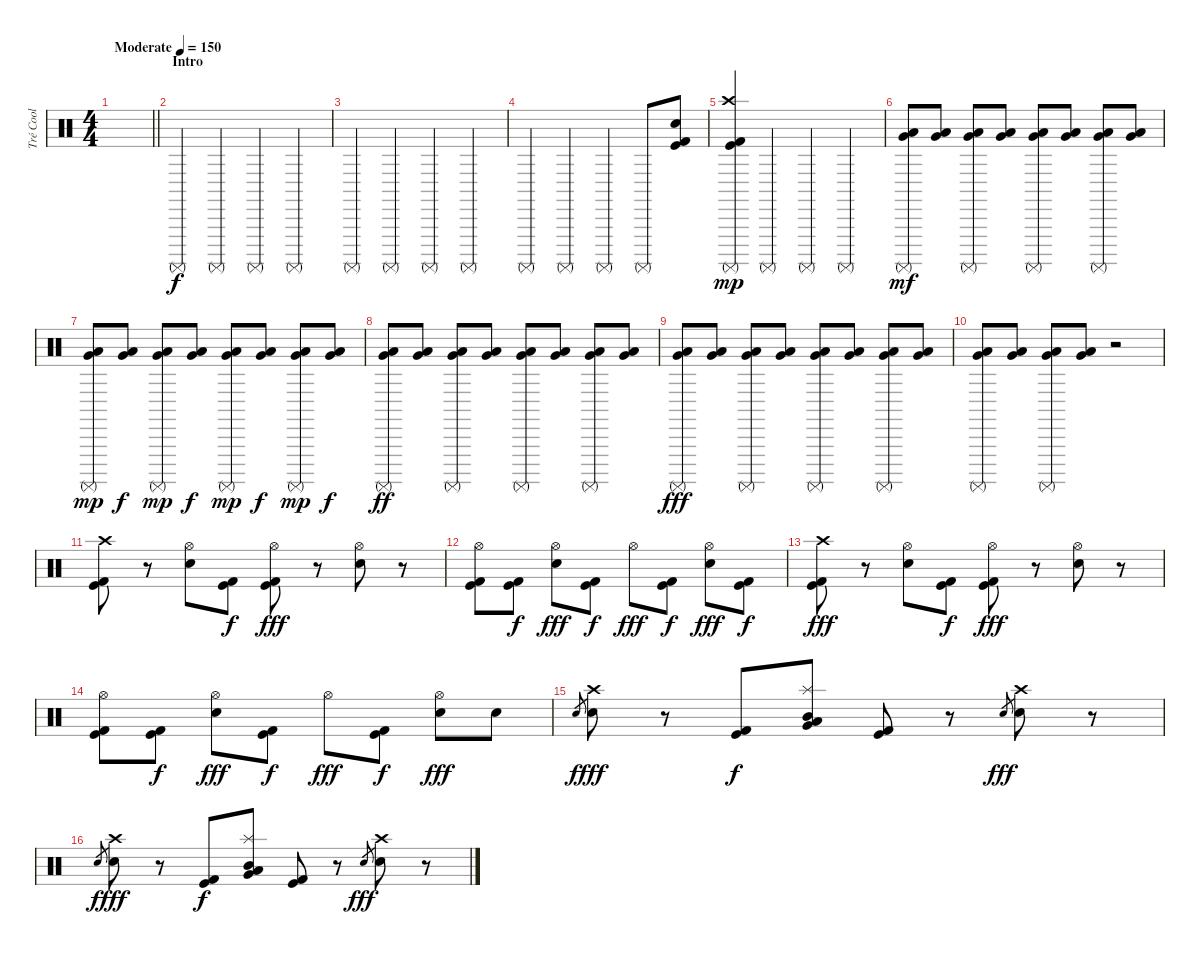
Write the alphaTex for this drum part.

\track ("Tré Cool" "Tré Cool") {instrument percussion}
\staff {score}
\articulation defaults
\ts (4 4)
\tempo (150 "Moderate")
\clef neutral
\barLineRight lightlight
\ks c
|
\section ("" "Intro")
"Surdo (mute)".4 "Surdo (mute)".4 "Surdo (mute)".4 "Surdo (mute)".4 |
"Surdo (mute)".4 "Surdo (mute)".4 "Surdo (mute)".4 "Surdo (mute)".4 |
"Surdo (mute)".4 "Surdo (mute)".4 "Surdo (mute)".4 "Surdo (mute)".8 ("Snare (hit) 2" "Kick (hit)" "Kick (hit) 2").8 |
("Crash high (hit)" "Surdo (mute)" "Kick (hit)" "Kick (hit) 2").4{dy mp} "Surdo (mute)".4 "Surdo (mute)".4 "Surdo (mute)".4 |
("Surdo (mute)" "Low Tom (hit)" "Very Low Tom (hit)").8{dy mf} ("Low Tom (hit)" "Very Low Tom (hit)").8 ("Surdo (mute)" "Low Tom (hit)" "Very Low Tom (hit)").8 ("Low Tom (hit)" "Very Low Tom (hit)").8 ("Surdo (mute)" "Low Tom (hit)" "Very Low Tom (hit)").8 ("Low Tom (hit)" "Very Low Tom (hit)").8 ("Surdo (mute)" "Low Tom (hit)" "Very Low Tom (hit)").8 ("Low Tom (hit)" "Very Low Tom (hit)").8 |
("Surdo (mute)" "Low Tom (hit)" "Very Low Tom (hit)").8{dy mp} ("Low Tom (hit)" "Very Low Tom (hit)").8{dy f} ("Surdo (mute)" "Low Tom (hit)" "Very Low Tom (hit)").8{dy mp} ("Low Tom (hit)" "Very Low Tom (hit)").8{dy f} ("Surdo (mute)" "Low Tom (hit)" "Very Low Tom (hit)").8{dy mp} ("Low Tom (hit)" "Very Low Tom (hit)").8{dy f} ("Surdo (mute)" "Low Tom (hit)" "Very Low Tom (hit)").8{dy mp} ("Low Tom (hit)" "Very Low Tom (hit)").8{dy f} |
("Surdo (mute)" "Low Tom (hit)" "Very Low Tom (hit)").8{dy ff} ("Low Tom (hit)" "Very Low Tom (hit)").8 ("Surdo (mute)" "Low Tom (hit)" "Very Low Tom (hit)").8 ("Low Tom (hit)" "Very Low Tom (hit)").8 ("Surdo (mute)" "Low Tom (hit)" "Very Low Tom (hit)").8 ("Low Tom (hit)" "Very Low Tom (hit)").8 ("Surdo (mute)" "Low Tom (hit)" "Very Low Tom (hit)").8 ("Low Tom (hit)" "Very Low Tom (hit)").8 |
("Surdo (mute)" "Low Tom (hit)" "Very Low Tom (hit)").8{dy fff} ("Low Tom (hit)" "Very Low Tom (hit)").8 ("Surdo (mute)" "Low Tom (hit)" "Very Low Tom (hit)").8 ("Low Tom (hit)" "Very Low Tom (hit)").8 ("Surdo (mute)" "Low Tom (hit)" "Very Low Tom (hit)").8 ("Low Tom (hit)" "Very Low Tom (hit)").8 ("Surdo (mute)" "Low Tom (hit)" "Very Low Tom (hit)").8 ("Low Tom (hit)" "Very Low Tom (hit)").8 |
("Surdo (mute)" "Low Tom (hit)" "Very Low Tom (hit)").8 ("Low Tom (hit)" "Very Low Tom (hit)").8 ("Surdo (mute)" "Low Tom (hit)" "Very Low Tom (hit)").8 ("Low Tom (hit)" "Very Low Tom (hit)").8 r.2 |
("Crash high (hit)" "Kick (hit)" "Kick (hit) 2").8 r.8 ("Hi-Hat (open)" "Snare (hit) 2").8 ("Kick (hit)" "Kick (hit) 2").8{dy f} ("Hi-Hat (open)" "Kick (hit)" "Kick (hit) 2").8{dy fff} r.8 ("Hi-Hat (open)" "Snare (hit) 2").8 r.8 |
("Hi-Hat (open)" "Kick (hit)" "Kick (hit) 2").8 ("Kick (hit)" "Kick (hit) 2").8{dy f} ("Hi-Hat (open)" "Snare (hit) 2").8{dy fff} ("Kick (hit)" "Kick (hit) 2").8{dy f} "Hi-Hat (open)".8{dy fff} ("Kick (hit)" "Kick (hit) 2").8{dy f} ("Hi-Hat (open)" "Snare (hit) 2").8{dy fff} ("Kick (hit)" "Kick (hit) 2").8{dy f} |
("Crash high (hit)" "Kick (hit)" "Kick (hit) 2").8{dy fff} r.8 ("Hi-Hat (open)" "Snare (hit) 2").8 ("Kick (hit)" "Kick (hit) 2").8{dy f} ("Hi-Hat (open)" "Kick (hit)" "Kick (hit) 2").8{dy fff} r.8 ("Hi-Hat (open)" "Snare (hit) 2").8 r.8 |
("Hi-Hat (open)" "Kick (hit)" "Kick (hit) 2").8 ("Kick (hit)" "Kick (hit) 2").8{dy f} ("Hi-Hat (open)" "Snare (hit) 2").8{dy fff} ("Kick (hit)" "Kick (hit) 2").8{dy f} "Hi-Hat (open)".8{dy fff} ("Kick (hit)" "Kick (hit) 2").8{dy f} ("Hi-Hat (open)" "Snare (hit) 2").8{dy fff} "Snare (hit) 2".8 |
"Snare (hit) 2".8{gr dy f} ("Crash high (hit)" "Snare (hit) 2").8{dy fff} r.8 ("Kick (hit)" "Kick (hit) 2").8{dy f} ("Splash (hit)" "Mid Tom (hit)" "Low Tom (hit)" "Very Low Tom (hit)").8 ("Kick (hit)" "Kick (hit) 2").8 r.8 "Snare (hit) 2".8{gr dy fff} ("Crash high (hit)" "Snare (hit) 2").8 r.8 |
"Snare (hit) 2".8{gr dy f} ("Crash high (hit)" "Snare (hit) 2").8{dy fff} r.8 ("Kick (hit)" "Kick (hit) 2").8{dy f} ("Splash (hit)" "Mid Tom (hit)" "Low Tom (hit)" "Very Low Tom (hit)").8 ("Kick (hit)" "Kick (hit) 2").8 r.8 "Snare (hit) 2".8{gr dy fff} ("Crash high (hit)" "Snare (hit) 2").8 r.8
